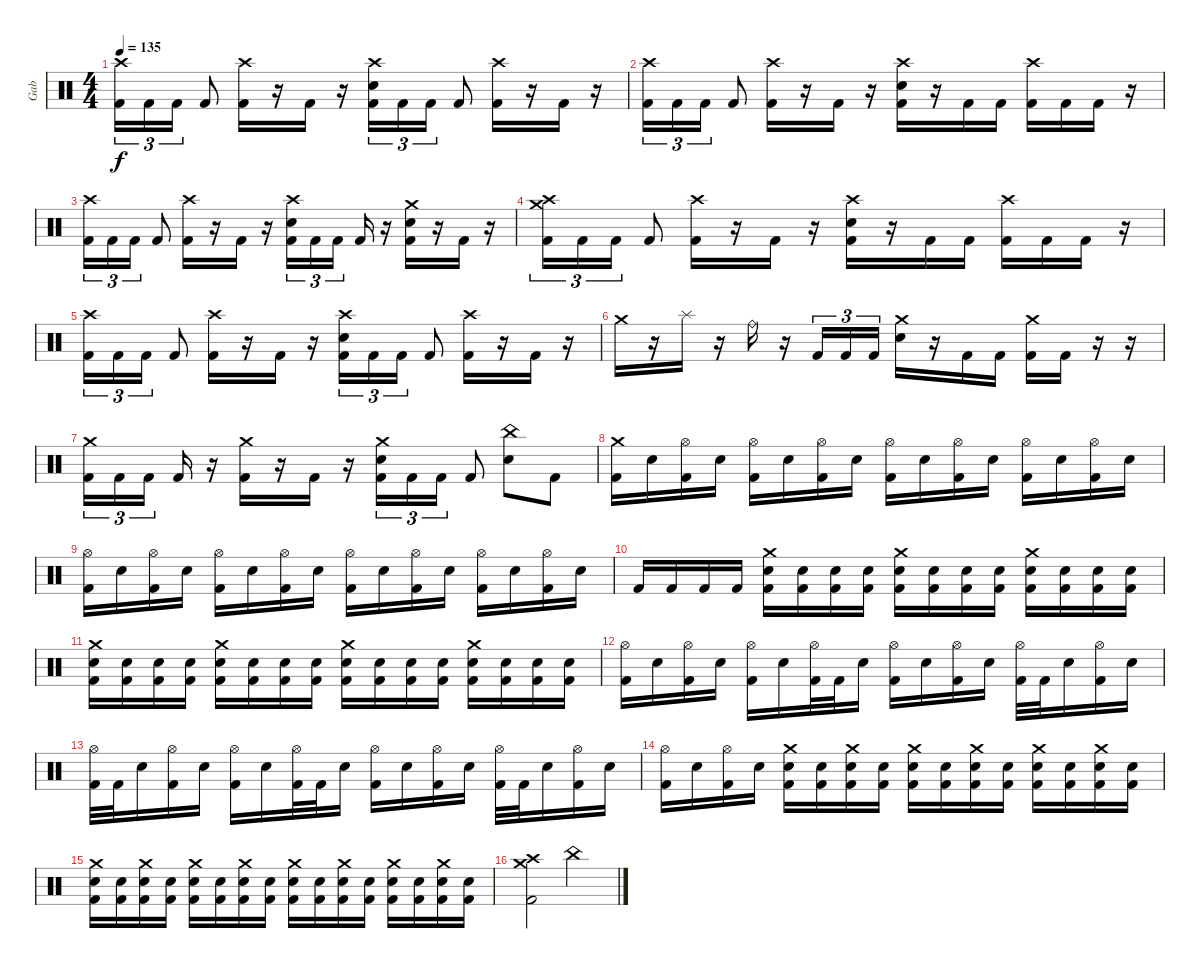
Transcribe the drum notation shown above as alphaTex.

\track ("Gab" "Gab") {instrument percussion}
\staff {score}
\articulation defaults
\ts (4 4)
\tempo 135
\clef neutral
\ks c
("Crash high (hit)" "Kick (hit) 2").16{tu (3 2) dy f} "Kick (hit) 2".16{tu (3 2)} "Kick (hit) 2".16{tu (3 2)} "Kick (hit) 2".8 ("Crash high (hit)" "Kick (hit) 2").16 r.16 "Kick (hit) 2".16 r.16 ("Crash high (hit)" "Electric Snare (hit)" "Kick (hit) 2").16{tu (3 2)} "Kick (hit) 2".16{tu (3 2)} "Kick (hit) 2".16{tu (3 2)} "Kick (hit) 2".8 ("Crash high (hit)" "Kick (hit) 2").16 r.16 "Kick (hit) 2".16 r.16 |
("Crash high (hit)" "Kick (hit) 2").16{tu (3 2)} "Kick (hit) 2".16{tu (3 2)} "Kick (hit) 2".16{tu (3 2)} "Kick (hit) 2".8 ("Crash high (hit)" "Kick (hit) 2").16 r.16 "Kick (hit) 2".16 r.16 ("Crash high (hit)" "Electric Snare (hit)" "Kick (hit) 2").16 r.16 "Kick (hit) 2".16 "Kick (hit) 2".16 ("Crash high (hit)" "Kick (hit) 2").16 "Kick (hit) 2".16 "Kick (hit) 2".16 r.16 |
("Crash high (hit)" "Kick (hit) 2").16{tu (3 2)} "Kick (hit) 2".16{tu (3 2)} "Kick (hit) 2".16{tu (3 2)} "Kick (hit) 2".8 ("Crash high (hit)" "Kick (hit) 2").16 r.16 "Kick (hit) 2".16 r.16 ("Crash high (hit)" "Electric Snare (hit)" "Kick (hit) 2").16{tu (3 2)} "Kick (hit) 2".16{tu (3 2)} "Kick (hit) 2".16{tu (3 2) beam splitsecondary} "Kick (hit) 2".16 r.16 ("Crash medium (hit)" "Electric Snare (hit)" "Kick (hit) 2").16 r.16 "Kick (hit) 2".16 r.16 |
("Crash medium (hit)" "Crash high (hit)" "Kick (hit) 2").16{tu (3 2)} "Kick (hit) 2".16{tu (3 2)} "Kick (hit) 2".16{tu (3 2)} "Kick (hit) 2".8 ("Crash high (hit)" "Kick (hit) 2").16 r.16 "Kick (hit) 2".16 r.16 ("Crash high (hit)" "Electric Snare (hit)" "Kick (hit) 2").16 r.16 "Kick (hit) 2".16 "Kick (hit) 2".16 ("Crash high (hit)" "Kick (hit) 2").16 "Kick (hit) 2".16 "Kick (hit) 2".16 r.16 |
("Crash high (hit)" "Kick (hit) 2").16{tu (3 2)} "Kick (hit) 2".16{tu (3 2)} "Kick (hit) 2".16{tu (3 2)} "Kick (hit) 2".8 ("Crash high (hit)" "Kick (hit) 2").16 r.16 "Kick (hit) 2".16 r.16 ("Crash high (hit)" "Electric Snare (hit)" "Kick (hit) 2").16{tu (3 2)} "Kick (hit) 2".16{tu (3 2)} "Kick (hit) 2".16{tu (3 2)} "Kick (hit) 2".8 ("Crash high (hit)" "Kick (hit) 2").16 r.16 "Kick (hit) 2".16 r.16 |
"Crash medium (hit)".16 r.16 "Splash (hit)".16 r.16 "Ride (bell)".16 r.16 "Kick (hit) 2".16{tu (3 2)} "Kick (hit) 2".16{tu (3 2)} "Kick (hit) 2".16{tu (3 2)} ("Crash medium (hit)" "Electric Snare (hit)").16 r.16 "Kick (hit) 2".16 "Kick (hit) 2".16 ("Crash medium (hit)" "Kick (hit) 2").16 "Kick (hit) 2".16 r.16 r.16 |
("Crash medium (hit)" "Kick (hit) 2").16{tu (3 2)} "Kick (hit) 2".16{tu (3 2)} "Kick (hit) 2".16{tu (3 2) beam splitsecondary} "Kick (hit) 2".16 r.16 ("Crash medium (hit)" "Kick (hit) 2").16 r.16 "Kick (hit) 2".16 r.16 ("Crash medium (hit)" "Electric Snare (hit)" "Kick (hit) 2").16{tu (3 2)} "Kick (hit) 2".16{tu (3 2)} "Kick (hit) 2".16{tu (3 2)} "Kick (hit) 2".8 ("China (hit)" "Electric Snare (hit)").8 "Kick (hit) 2".8 |
("Crash medium (hit)" "Kick (hit) 2").16 "Electric Snare (hit)".16 ("Hi-Hat (open)" "Kick (hit) 2").16 "Electric Snare (hit)".16 ("Hi-Hat (open)" "Kick (hit) 2").16 "Electric Snare (hit)".16 ("Hi-Hat (open)" "Kick (hit) 2").16 "Electric Snare (hit)".16 ("Hi-Hat (open)" "Kick (hit) 2").16 "Electric Snare (hit)".16 ("Hi-Hat (open)" "Kick (hit) 2").16 "Electric Snare (hit)".16 ("Hi-Hat (open)" "Kick (hit) 2").16 "Electric Snare (hit)".16 ("Hi-Hat (open)" "Kick (hit) 2").16 "Electric Snare (hit)".16 |
("Hi-Hat (open)" "Kick (hit) 2").16 "Electric Snare (hit)".16 ("Hi-Hat (open)" "Kick (hit) 2").16 "Electric Snare (hit)".16 ("Hi-Hat (open)" "Kick (hit) 2").16 "Electric Snare (hit)".16 ("Hi-Hat (open)" "Kick (hit) 2").16 "Electric Snare (hit)".16 ("Hi-Hat (open)" "Kick (hit) 2").16 "Electric Snare (hit)".16 ("Hi-Hat (open)" "Kick (hit) 2").16 "Electric Snare (hit)".16 ("Hi-Hat (open)" "Kick (hit) 2").16 "Electric Snare (hit)".16 ("Hi-Hat (open)" "Kick (hit) 2").16 "Electric Snare (hit)".16 |
"Kick (hit) 2".16 "Kick (hit) 2".16 "Kick (hit) 2".16 "Kick (hit) 2".16 ("Crash medium (hit)" "Electric Snare (hit)" "Kick (hit) 2").16 ("Electric Snare (hit)" "Kick (hit) 2").16 ("Electric Snare (hit)" "Kick (hit) 2").16 ("Electric Snare (hit)" "Kick (hit) 2").16 ("Crash medium (hit)" "Electric Snare (hit)" "Kick (hit) 2").16 ("Electric Snare (hit)" "Kick (hit) 2").16 ("Electric Snare (hit)" "Kick (hit) 2").16 ("Electric Snare (hit)" "Kick (hit) 2").16 ("Crash medium (hit)" "Electric Snare (hit)" "Kick (hit) 2").16 ("Electric Snare (hit)" "Kick (hit) 2").16 ("Electric Snare (hit)" "Kick (hit) 2").16 ("Electric Snare (hit)" "Kick (hit) 2").16 |
("Crash medium (hit)" "Electric Snare (hit)" "Kick (hit) 2").16 ("Electric Snare (hit)" "Kick (hit) 2").16 ("Electric Snare (hit)" "Kick (hit) 2").16 ("Electric Snare (hit)" "Kick (hit) 2").16 ("Crash medium (hit)" "Electric Snare (hit)" "Kick (hit) 2").16 ("Electric Snare (hit)" "Kick (hit) 2").16 ("Electric Snare (hit)" "Kick (hit) 2").16 ("Electric Snare (hit)" "Kick (hit) 2").16 ("Crash medium (hit)" "Electric Snare (hit)" "Kick (hit) 2").16 ("Electric Snare (hit)" "Kick (hit) 2").16 ("Electric Snare (hit)" "Kick (hit) 2").16 ("Electric Snare (hit)" "Kick (hit) 2").16 ("Crash medium (hit)" "Electric Snare (hit)" "Kick (hit) 2").16 ("Electric Snare (hit)" "Kick (hit) 2").16 ("Electric Snare (hit)" "Kick (hit) 2").16 ("Electric Snare (hit)" "Kick (hit) 2").16 |
("Hi-Hat (open)" "Kick (hit) 2").16 "Electric Snare (hit)".16 ("Hi-Hat (open)" "Kick (hit) 2").16 "Electric Snare (hit)".16 ("Hi-Hat (open)" "Kick (hit) 2").16 "Electric Snare (hit)".16 ("Hi-Hat (open)" "Kick (hit) 2").32 "Kick (hit) 2".32 "Electric Snare (hit)".16 ("Hi-Hat (open)" "Kick (hit) 2").16 "Electric Snare (hit)".16 ("Hi-Hat (open)" "Kick (hit) 2").16 "Electric Snare (hit)".16 ("Hi-Hat (open)" "Kick (hit) 2").32 "Kick (hit) 2".32 "Electric Snare (hit)".16 ("Hi-Hat (open)" "Kick (hit) 2").16 "Electric Snare (hit)".16 |
("Hi-Hat (open)" "Kick (hit) 2").32 "Kick (hit) 2".32 "Electric Snare (hit)".16 ("Hi-Hat (open)" "Kick (hit) 2").16 "Electric Snare (hit)".16 ("Hi-Hat (open)" "Kick (hit) 2").16 "Electric Snare (hit)".16 ("Hi-Hat (open)" "Kick (hit) 2").32 "Kick (hit) 2".32 "Electric Snare (hit)".16 ("Hi-Hat (open)" "Kick (hit) 2").16 "Electric Snare (hit)".16 ("Hi-Hat (open)" "Kick (hit) 2").16 "Electric Snare (hit)".16 ("Hi-Hat (open)" "Kick (hit) 2").32 "Kick (hit) 2".32 "Electric Snare (hit)".16 ("Hi-Hat (open)" "Kick (hit) 2").16 "Electric Snare (hit)".16 |
("Hi-Hat (open)" "Kick (hit) 2").16 "Electric Snare (hit)".16 ("Hi-Hat (open)" "Kick (hit) 2").16 "Electric Snare (hit)".16 ("Crash medium (hit)" "Electric Snare (hit)" "Kick (hit) 2").16 ("Electric Snare (hit)" "Kick (hit) 2").16 ("Crash medium (hit)" "Electric Snare (hit)" "Kick (hit) 2").16 ("Electric Snare (hit)" "Kick (hit) 2").16 ("Crash medium (hit)" "Electric Snare (hit)" "Kick (hit) 2").16 ("Electric Snare (hit)" "Kick (hit) 2").16 ("Crash medium (hit)" "Electric Snare (hit)" "Kick (hit) 2").16 ("Electric Snare (hit)" "Kick (hit) 2").16 ("Crash medium (hit)" "Electric Snare (hit)" "Kick (hit) 2").16 ("Electric Snare (hit)" "Kick (hit) 2").16 ("Crash medium (hit)" "Electric Snare (hit)" "Kick (hit) 2").16 ("Electric Snare (hit)" "Kick (hit) 2").16 |
("Crash medium (hit)" "Electric Snare (hit)" "Kick (hit) 2").16 ("Electric Snare (hit)" "Kick (hit) 2").16 ("Crash medium (hit)" "Electric Snare (hit)" "Kick (hit) 2").16 ("Electric Snare (hit)" "Kick (hit) 2").16 ("Crash medium (hit)" "Electric Snare (hit)" "Kick (hit) 2").16 ("Electric Snare (hit)" "Kick (hit) 2").16 ("Crash medium (hit)" "Electric Snare (hit)" "Kick (hit) 2").16 ("Electric Snare (hit)" "Kick (hit) 2").16 ("Crash medium (hit)" "Electric Snare (hit)" "Kick (hit) 2").16 ("Electric Snare (hit)" "Kick (hit) 2").16 ("Crash medium (hit)" "Electric Snare (hit)" "Kick (hit) 2").16 ("Electric Snare (hit)" "Kick (hit) 2").16 ("Crash medium (hit)" "Electric Snare (hit)" "Kick (hit) 2").16 ("Electric Snare (hit)" "Kick (hit) 2").16 ("Crash medium (hit)" "Electric Snare (hit)" "Kick (hit) 2").16 ("Electric Snare (hit)" "Kick (hit) 2").16 |
("Crash medium (hit)" "Crash high (hit)" "Kick (hit) 2").2 "China (hit)".2
